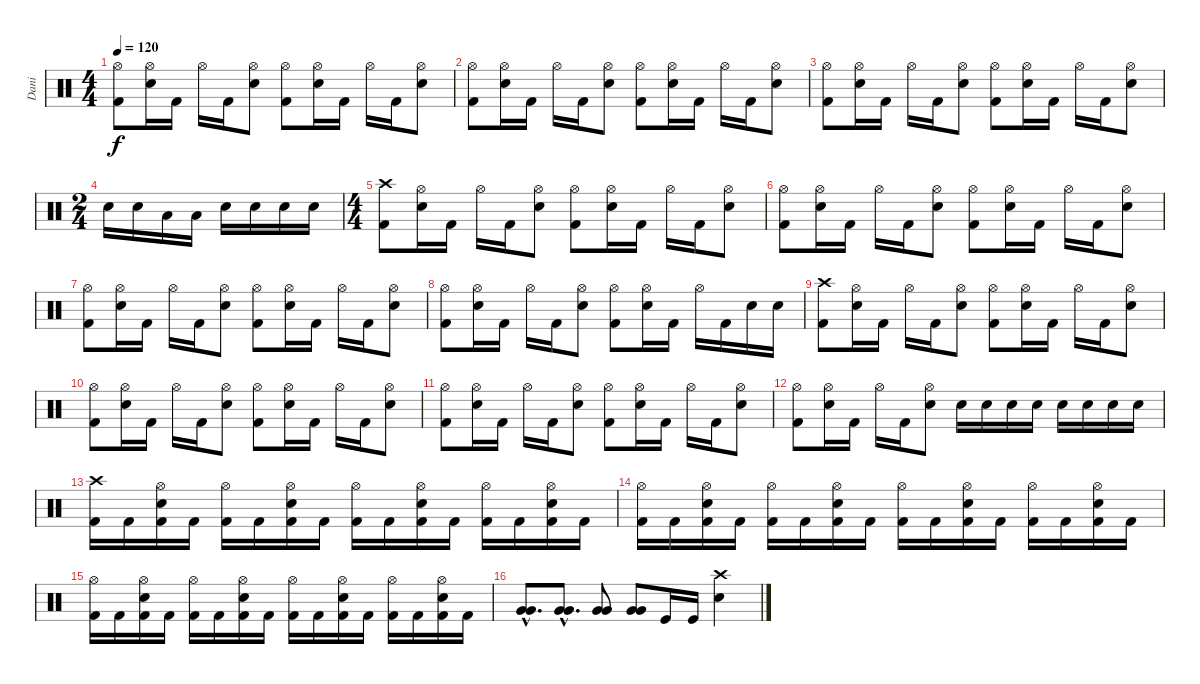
\track ("Dani" "Dani") {instrument percussion}
\staff {score}
\articulation defaults
\ts (4 4)
\tempo 120
\clef neutral
\ks c
("Hi-Hat (open)" "Kick (hit) 2").8{dy f} ("Hi-Hat (open)" "Snare (hit) 2").16 "Kick (hit) 2".16 "Hi-Hat (open)".16 "Kick (hit) 2".16 ("Hi-Hat (open)" "Snare (hit) 2").8 ("Hi-Hat (open)" "Kick (hit) 2").8 ("Hi-Hat (open)" "Snare (hit) 2").16 "Kick (hit) 2".16 "Hi-Hat (open)".16 "Kick (hit) 2".16 ("Hi-Hat (open)" "Snare (hit) 2").8 |
("Hi-Hat (open)" "Kick (hit) 2").8 ("Hi-Hat (open)" "Snare (hit) 2").16 "Kick (hit) 2".16 "Hi-Hat (open)".16 "Kick (hit) 2".16 ("Hi-Hat (open)" "Snare (hit) 2").8 ("Hi-Hat (open)" "Kick (hit) 2").8 ("Hi-Hat (open)" "Snare (hit) 2").16 "Kick (hit) 2".16 "Hi-Hat (open)".16 "Kick (hit) 2".16 ("Hi-Hat (open)" "Snare (hit) 2").8 |
("Hi-Hat (open)" "Kick (hit) 2").8 ("Hi-Hat (open)" "Snare (hit) 2").16 "Kick (hit) 2".16 "Hi-Hat (open)".16 "Kick (hit) 2".16 ("Hi-Hat (open)" "Snare (hit) 2").8 ("Hi-Hat (open)" "Kick (hit) 2").8 ("Hi-Hat (open)" "Snare (hit) 2").16 "Kick (hit) 2".16 "Hi-Hat (open)".16 "Kick (hit) 2".16 ("Hi-Hat (open)" "Snare (hit) 2").8 |
\ts (2 4)
"Snare (hit) 2".16 "Snare (hit) 2".16 "Low Tom (hit)".16 "Low Tom (hit)".16 "Snare (hit) 2".16 "Snare (hit) 2".16 "Snare (hit) 2".16 "Snare (hit) 2".16 |
\ts (4 4)
("Crash high (hit)" "Kick (hit) 2").8 ("Hi-Hat (open)" "Snare (hit) 2").16 "Kick (hit) 2".16 "Hi-Hat (open)".16 "Kick (hit) 2".16 ("Hi-Hat (open)" "Snare (hit) 2").8 ("Hi-Hat (open)" "Kick (hit) 2").8 ("Hi-Hat (open)" "Snare (hit) 2").16 "Kick (hit) 2".16 "Hi-Hat (open)".16 "Kick (hit) 2".16 ("Hi-Hat (open)" "Snare (hit) 2").8 |
("Hi-Hat (open)" "Kick (hit) 2").8 ("Hi-Hat (open)" "Snare (hit) 2").16 "Kick (hit) 2".16 "Hi-Hat (open)".16 "Kick (hit) 2".16 ("Hi-Hat (open)" "Snare (hit) 2").8 ("Hi-Hat (open)" "Kick (hit) 2").8 ("Hi-Hat (open)" "Snare (hit) 2").16 "Kick (hit) 2".16 "Hi-Hat (open)".16 "Kick (hit) 2".16 ("Hi-Hat (open)" "Snare (hit) 2").8 |
("Hi-Hat (open)" "Kick (hit) 2").8 ("Hi-Hat (open)" "Snare (hit) 2").16 "Kick (hit) 2".16 "Hi-Hat (open)".16 "Kick (hit) 2".16 ("Hi-Hat (open)" "Snare (hit) 2").8 ("Hi-Hat (open)" "Kick (hit) 2").8 ("Hi-Hat (open)" "Snare (hit) 2").16 "Kick (hit) 2".16 "Hi-Hat (open)".16 "Kick (hit) 2".16 ("Hi-Hat (open)" "Snare (hit) 2").8 |
("Hi-Hat (open)" "Kick (hit) 2").8 ("Hi-Hat (open)" "Snare (hit) 2").16 "Kick (hit) 2".16 "Hi-Hat (open)".16 "Kick (hit) 2".16 ("Hi-Hat (open)" "Snare (hit) 2").8 ("Hi-Hat (open)" "Kick (hit) 2").8 ("Hi-Hat (open)" "Snare (hit) 2").16 "Kick (hit) 2".16 "Hi-Hat (open)".16 "Kick (hit) 2".16 "Snare (hit) 2".16 "Snare (hit) 2".16 |
("Crash high (hit)" "Kick (hit) 2").8 ("Hi-Hat (open)" "Snare (hit) 2").16 "Kick (hit) 2".16 "Hi-Hat (open)".16 "Kick (hit) 2".16 ("Hi-Hat (open)" "Snare (hit) 2").8 ("Hi-Hat (open)" "Kick (hit) 2").8 ("Hi-Hat (open)" "Snare (hit) 2").16 "Kick (hit) 2".16 "Hi-Hat (open)".16 "Kick (hit) 2".16 ("Hi-Hat (open)" "Snare (hit) 2").8 |
("Hi-Hat (open)" "Kick (hit) 2").8 ("Hi-Hat (open)" "Snare (hit) 2").16 "Kick (hit) 2".16 "Hi-Hat (open)".16 "Kick (hit) 2".16 ("Hi-Hat (open)" "Snare (hit) 2").8 ("Hi-Hat (open)" "Kick (hit) 2").8 ("Hi-Hat (open)" "Snare (hit) 2").16 "Kick (hit) 2".16 "Hi-Hat (open)".16 "Kick (hit) 2".16 ("Hi-Hat (open)" "Snare (hit) 2").8 |
("Hi-Hat (open)" "Kick (hit) 2").8 ("Hi-Hat (open)" "Snare (hit) 2").16 "Kick (hit) 2".16 "Hi-Hat (open)".16 "Kick (hit) 2".16 ("Hi-Hat (open)" "Snare (hit) 2").8 ("Hi-Hat (open)" "Kick (hit) 2").8 ("Hi-Hat (open)" "Snare (hit) 2").16 "Kick (hit) 2".16 "Hi-Hat (open)".16 "Kick (hit) 2".16 ("Hi-Hat (open)" "Snare (hit) 2").8 |
("Hi-Hat (open)" "Kick (hit) 2").8 ("Hi-Hat (open)" "Snare (hit) 2").16 "Kick (hit) 2".16 "Hi-Hat (open)".16 "Kick (hit) 2".16 ("Hi-Hat (open)" "Snare (hit) 2").8 "Snare (hit) 2".16 "Snare (hit) 2".16 "Snare (hit) 2".16 "Snare (hit) 2".16 "Snare (hit) 2".16 "Snare (hit) 2".16 "Snare (hit) 2".16 "Snare (hit) 2".16 |
("Crash high (hit)" "Kick (hit) 2").16 "Kick (hit) 2".16 ("Hi-Hat (open)" "Snare (hit) 2" "Kick (hit) 2").16 "Kick (hit) 2".16 ("Hi-Hat (open)" "Kick (hit) 2").16 "Kick (hit) 2".16 ("Hi-Hat (open)" "Snare (hit) 2" "Kick (hit) 2").16 "Kick (hit) 2".16 ("Hi-Hat (open)" "Kick (hit) 2").16 "Kick (hit) 2".16 ("Hi-Hat (open)" "Snare (hit) 2" "Kick (hit) 2").16 "Kick (hit) 2".16 ("Hi-Hat (open)" "Kick (hit) 2").16 "Kick (hit) 2".16 ("Hi-Hat (open)" "Snare (hit) 2" "Kick (hit) 2").16 "Kick (hit) 2".16 |
("Hi-Hat (open)" "Kick (hit) 2").16 "Kick (hit) 2".16 ("Hi-Hat (open)" "Snare (hit) 2" "Kick (hit) 2").16 "Kick (hit) 2".16 ("Hi-Hat (open)" "Kick (hit) 2").16 "Kick (hit) 2".16 ("Hi-Hat (open)" "Snare (hit) 2" "Kick (hit) 2").16 "Kick (hit) 2".16 ("Hi-Hat (open)" "Kick (hit) 2").16 "Kick (hit) 2".16 ("Hi-Hat (open)" "Snare (hit) 2" "Kick (hit) 2").16 "Kick (hit) 2".16 ("Hi-Hat (open)" "Kick (hit) 2").16 "Kick (hit) 2".16 ("Hi-Hat (open)" "Snare (hit) 2" "Kick (hit) 2").16 "Kick (hit) 2".16 |
("Hi-Hat (open)" "Kick (hit) 2").16 "Kick (hit) 2".16 ("Hi-Hat (open)" "Snare (hit) 2" "Kick (hit) 2").16 "Kick (hit) 2".16 ("Hi-Hat (open)" "Kick (hit) 2").16 "Kick (hit) 2".16 ("Hi-Hat (open)" "Snare (hit) 2" "Kick (hit) 2").16 "Kick (hit) 2".16 ("Hi-Hat (open)" "Kick (hit) 2").16 "Kick (hit) 2".16 ("Hi-Hat (open)" "Snare (hit) 2" "Kick (hit) 2").16 "Kick (hit) 2".16 ("Hi-Hat (open)" "Kick (hit) 2").16 "Kick (hit) 2".16 ("Hi-Hat (open)" "Snare (hit) 2" "Kick (hit) 2").16 "Kick (hit) 2".16 |
("Very Low Tom (hit)"{hac} "Very Low Tom (hit)"{hac}).8{d bd 240} ("Very Low Tom (hit)"{hac} "Very Low Tom (hit)"{hac}).8{d bd 240} ("Very Low Tom (hit)" "Very Low Tom (hit)").8{bd 240} ("Very Low Tom (hit)" "Very Low Tom (hit)").8{bd 240} "Kick (hit)".16 "Kick (hit)".16 ("Crash high (hit)" "Snare (hit) 2").4
